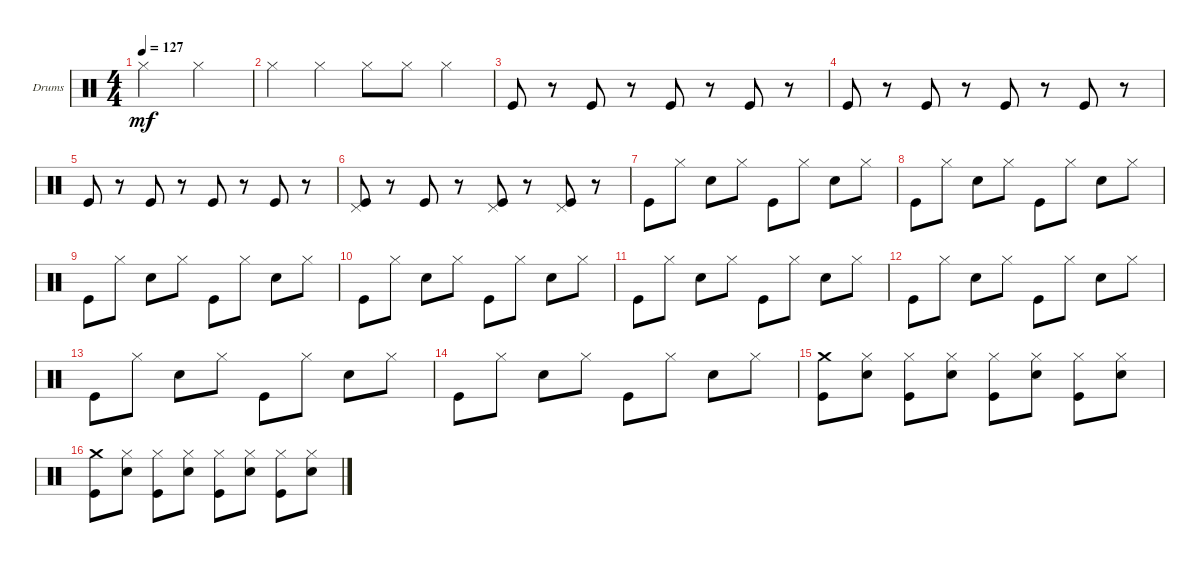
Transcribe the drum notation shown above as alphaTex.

\defaultSystemsLayout 4
\bracketExtendMode groupsimilarinstruments
\firstSystemTrackNameOrientation horizontal
\otherSystemsTrackNameOrientation horizontal
\track ("Е. Кулаков" "Drums") {instrument percussion}
\staff {score}
\articulation defaults
\ts (4 4)
\tempo 127
\clef neutral
\ks c "Hi-Hat (closed)".2{dy mf} "Hi-Hat (closed)".2
|
"Hi-Hat (closed)".4 "Hi-Hat (closed)".4 "Hi-Hat (closed)".8 "Hi-Hat (closed)".8 "Hi-Hat (closed)".4 |
\scale
0.474178 "Kick (hit)".8 r.8 "Kick (hit)".8 r.8 "Kick (hit)".8 r.8 "Kick (hit)".8 r.8 |
\scale
0.262911 "Kick (hit)".8 r.8 "Kick (hit)".8 r.8 "Kick (hit)".8 r.8 "Kick (hit)".8 r.8 |
\scale
0.262911 "Kick (hit)".8 r.8 "Kick (hit)".8 r.8 "Kick (hit)".8 r.8 "Kick (hit)".8 r.8 |
\scale
0.333333 ("Kick (hit)" "Pedal Hi-Hat (hit)").8 r.8 "Kick (hit)".8 r.8 ("Kick (hit)" "Pedal Hi-Hat (hit)").8 r.8 ("Kick (hit)" "Pedal Hi-Hat (hit)").8 r.8 |
\scale
0.333333 "Kick (hit)".8 "Hi-Hat (closed)".8 "Snare (hit) 2".8 "Hi-Hat (closed)".8 "Kick (hit)".8 "Hi-Hat (closed)".8 "Snare (hit) 2".8 "Hi-Hat (closed)".8 |
\scale
0.333333 "Kick (hit)".8 "Hi-Hat (closed)".8 "Snare (hit) 2".8 "Hi-Hat (closed)".8 "Kick (hit)".8 "Hi-Hat (closed)".8 "Snare (hit) 2".8 "Hi-Hat (closed)".8 |
\scale
0.333333 "Kick (hit)".8 "Hi-Hat (closed)".8 "Snare (hit) 2".8 "Hi-Hat (closed)".8 "Kick (hit)".8 "Hi-Hat (closed)".8 "Snare (hit) 2".8 "Hi-Hat (closed)".8 |
\scale
0.333333 "Kick (hit)".8 "Hi-Hat (closed)".8 "Snare (hit) 2".8 "Hi-Hat (closed)".8 "Kick (hit)".8 "Hi-Hat (closed)".8 "Snare (hit) 2".8 "Hi-Hat (closed)".8 |
\scale
0.333333 "Kick (hit)".8 "Hi-Hat (closed)".8 "Snare (hit) 2".8 "Hi-Hat (closed)".8 "Kick (hit)".8 "Hi-Hat (closed)".8 "Snare (hit) 2".8 "Hi-Hat (closed)".8 |
\scale
0.333333 "Kick (hit)".8 "Hi-Hat (closed)".8 "Snare (hit) 2".8 "Hi-Hat (closed)".8 "Kick (hit)".8 "Hi-Hat (closed)".8 "Snare (hit) 2".8 "Hi-Hat (closed)".8 |
\scale
0.333333 "Kick (hit)".8 "Hi-Hat (closed)".8 "Snare (hit) 2".8 "Hi-Hat (closed)".8 "Kick (hit)".8 "Hi-Hat (closed)".8 "Snare (hit) 2".8 "Hi-Hat (closed)".8 |
\scale
0.333333 "Kick (hit)".8 "Hi-Hat (closed)".8 "Snare (hit) 2".8 "Hi-Hat (closed)".8 "Kick (hit)".8 "Hi-Hat (closed)".8 "Snare (hit) 2".8 "Hi-Hat (closed)".8 |
\scale
0.333333 ("Kick (hit)" "Crash medium (hit)").8 ("Snare (hit) 2" "Hi-Hat (closed)").8 ("Kick (hit)" "Hi-Hat (closed)").8 ("Snare (hit) 2" "Hi-Hat (closed)").8 ("Kick (hit)" "Hi-Hat (closed)").8 ("Snare (hit) 2" "Hi-Hat (closed)").8 ("Kick (hit)" "Hi-Hat (closed)").8 ("Snare (hit) 2" "Hi-Hat (closed)").8 |
\scale
0.333333 ("Kick (hit)" "Crash medium (hit)").8 ("Snare (hit) 2" "Hi-Hat (closed)").8 ("Kick (hit)" "Hi-Hat (closed)").8 ("Snare (hit) 2" "Hi-Hat (closed)").8 ("Kick (hit)" "Hi-Hat (closed)").8 ("Snare (hit) 2" "Hi-Hat (closed)").8 ("Kick (hit)" "Hi-Hat (closed)").8 ("Snare (hit) 2" "Hi-Hat (closed)").8
